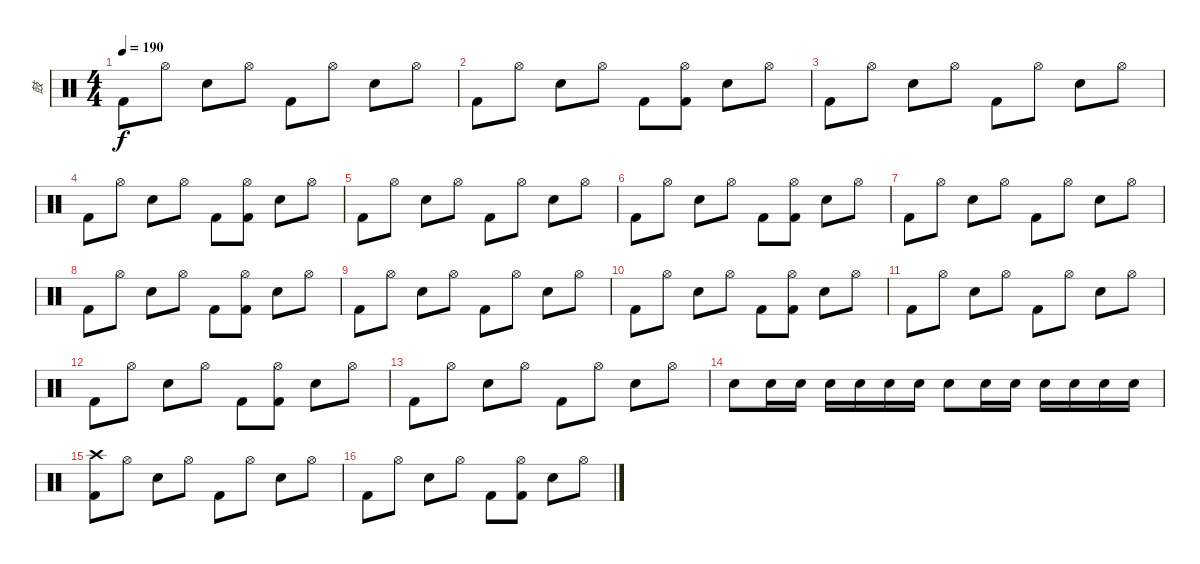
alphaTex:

\track ("鼓" "鼓") {instrument percussion}
\staff {score}
\articulation defaults
\ts (4 4)
\tempo 190
\clef neutral
\ks c "Kick (hit) 2".8{dy f} "Hi-Hat (open)".8 "Snare (hit) 2".8 "Hi-Hat (open)".8 "Kick (hit) 2".8 "Hi-Hat (open)".8 "Snare (hit) 2".8 "Hi-Hat (open)".8
|
"Kick (hit) 2".8 "Hi-Hat (open)".8 "Snare (hit) 2".8 "Hi-Hat (open)".8 "Kick (hit) 2".8 ("Hi-Hat (open)" "Kick (hit) 2").8 "Snare (hit) 2".8 "Hi-Hat (open)".8 |
"Kick (hit) 2".8 "Hi-Hat (open)".8 "Snare (hit) 2".8 "Hi-Hat (open)".8 "Kick (hit) 2".8 "Hi-Hat (open)".8 "Snare (hit) 2".8 "Hi-Hat (open)".8 |
"Kick (hit) 2".8 "Hi-Hat (open)".8 "Snare (hit) 2".8 "Hi-Hat (open)".8 "Kick (hit) 2".8 ("Hi-Hat (open)" "Kick (hit) 2").8 "Snare (hit) 2".8 "Hi-Hat (open)".8 |
"Kick (hit) 2".8 "Hi-Hat (open)".8 "Snare (hit) 2".8 "Hi-Hat (open)".8 "Kick (hit) 2".8 "Hi-Hat (open)".8 "Snare (hit) 2".8 "Hi-Hat (open)".8 |
"Kick (hit) 2".8 "Hi-Hat (open)".8 "Snare (hit) 2".8 "Hi-Hat (open)".8 "Kick (hit) 2".8 ("Hi-Hat (open)" "Kick (hit) 2").8 "Snare (hit) 2".8 "Hi-Hat (open)".8 |
"Kick (hit) 2".8 "Hi-Hat (open)".8 "Snare (hit) 2".8 "Hi-Hat (open)".8 "Kick (hit) 2".8 "Hi-Hat (open)".8 "Snare (hit) 2".8 "Hi-Hat (open)".8 |
"Kick (hit) 2".8 "Hi-Hat (open)".8 "Snare (hit) 2".8 "Hi-Hat (open)".8 "Kick (hit) 2".8 ("Hi-Hat (open)" "Kick (hit) 2").8 "Snare (hit) 2".8 "Hi-Hat (open)".8 |
"Kick (hit) 2".8 "Hi-Hat (open)".8 "Snare (hit) 2".8 "Hi-Hat (open)".8 "Kick (hit) 2".8 "Hi-Hat (open)".8 "Snare (hit) 2".8 "Hi-Hat (open)".8 |
"Kick (hit) 2".8 "Hi-Hat (open)".8 "Snare (hit) 2".8 "Hi-Hat (open)".8 "Kick (hit) 2".8 ("Hi-Hat (open)" "Kick (hit) 2").8 "Snare (hit) 2".8 "Hi-Hat (open)".8 |
"Kick (hit) 2".8 "Hi-Hat (open)".8 "Snare (hit) 2".8 "Hi-Hat (open)".8 "Kick (hit) 2".8 "Hi-Hat (open)".8 "Snare (hit) 2".8 "Hi-Hat (open)".8 |
"Kick (hit) 2".8 "Hi-Hat (open)".8 "Snare (hit) 2".8 "Hi-Hat (open)".8 "Kick (hit) 2".8 ("Hi-Hat (open)" "Kick (hit) 2").8 "Snare (hit) 2".8 "Hi-Hat (open)".8 |
"Kick (hit) 2".8 "Hi-Hat (open)".8 "Snare (hit) 2".8 "Hi-Hat (open)".8 "Kick (hit) 2".8 "Hi-Hat (open)".8 "Snare (hit) 2".8 "Hi-Hat (open)".8 |
"Snare (hit) 2".8 "Snare (hit) 2".16 "Snare (hit) 2".16 "Snare (hit) 2".16 "Snare (hit) 2".16 "Snare (hit) 2".16 "Snare (hit) 2".16 "Snare (hit) 2".8 "Snare (hit) 2".16 "Snare (hit) 2".16 "Snare (hit) 2".16 "Snare (hit) 2".16 "Snare (hit) 2".16 "Snare (hit) 2".16 |
("Crash high (hit)" "Kick (hit) 2").8 "Hi-Hat (open)".8 "Snare (hit) 2".8 "Hi-Hat (open)".8 "Kick (hit) 2".8 "Hi-Hat (open)".8 "Snare (hit) 2".8 "Hi-Hat (open)".8 |
"Kick (hit) 2".8 "Hi-Hat (open)".8 "Snare (hit) 2".8 "Hi-Hat (open)".8 "Kick (hit) 2".8 ("Hi-Hat (open)" "Kick (hit) 2").8 "Snare (hit) 2".8 "Hi-Hat (open)".8
